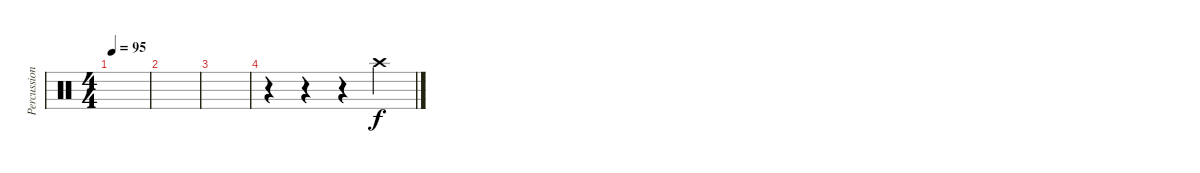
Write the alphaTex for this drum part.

\track ("Percussion" "Percussion") {instrument percussion}
\staff {score}
\articulation defaults
\ts (4 4)
\tempo 95
\clef neutral
\ks c
|
|
|
r.4 r.4 r.4 "Crash high (hit)".4
